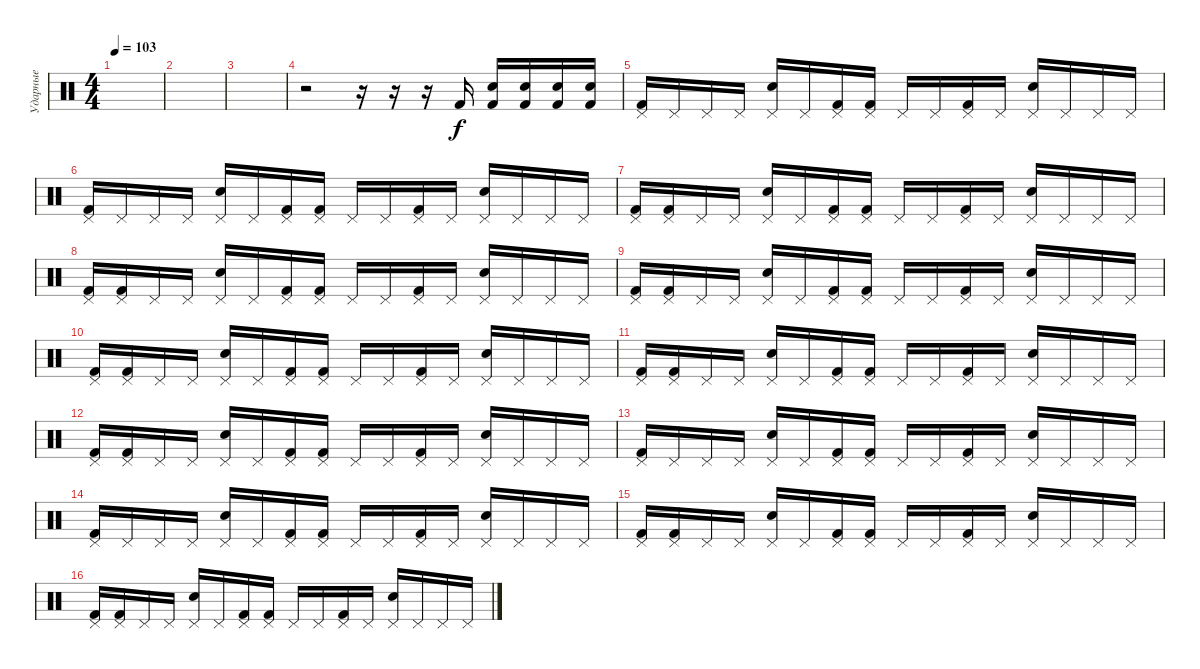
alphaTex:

\track ("Ударные" "Ударные") {instrument percussion}
\staff {score}
\articulation defaults
\ts (4 4)
\tempo 103
\clef neutral
\ks c
|
|
|
r.2 r.16 r.16 r.16 "Kick (hit) 2".16 ("Snare (hit) 2" "Kick (hit) 2").16 ("Snare (hit) 2" "Kick (hit) 2").16 ("Snare (hit) 2" "Kick (hit) 2").16 ("Snare (hit) 2" "Kick (hit) 2").16 |
("Pedal Hi-Hat (hit)" "Kick (hit) 2").16 "Pedal Hi-Hat (hit)".16 "Pedal Hi-Hat (hit)".16 "Pedal Hi-Hat (hit)".16 ("Pedal Hi-Hat (hit)" "Snare (hit) 2").16 "Pedal Hi-Hat (hit)".16 ("Pedal Hi-Hat (hit)" "Kick (hit) 2").16 ("Pedal Hi-Hat (hit)" "Kick (hit) 2").16 "Pedal Hi-Hat (hit)".16 "Pedal Hi-Hat (hit)".16 ("Pedal Hi-Hat (hit)" "Kick (hit) 2").16 "Pedal Hi-Hat (hit)".16 ("Pedal Hi-Hat (hit)" "Snare (hit) 2").16 "Pedal Hi-Hat (hit)".16 "Pedal Hi-Hat (hit)".16 "Pedal Hi-Hat (hit)".16 |
("Pedal Hi-Hat (hit)" "Kick (hit) 2").16 "Pedal Hi-Hat (hit)".16 "Pedal Hi-Hat (hit)".16 "Pedal Hi-Hat (hit)".16 ("Pedal Hi-Hat (hit)" "Snare (hit) 2").16 "Pedal Hi-Hat (hit)".16 ("Pedal Hi-Hat (hit)" "Kick (hit) 2").16 ("Pedal Hi-Hat (hit)" "Kick (hit) 2").16 "Pedal Hi-Hat (hit)".16 "Pedal Hi-Hat (hit)".16 ("Pedal Hi-Hat (hit)" "Kick (hit) 2").16 "Pedal Hi-Hat (hit)".16 ("Pedal Hi-Hat (hit)" "Snare (hit) 2").16 "Pedal Hi-Hat (hit)".16 "Pedal Hi-Hat (hit)".16 "Pedal Hi-Hat (hit)".16 |
("Pedal Hi-Hat (hit)" "Kick (hit) 2").16 ("Pedal Hi-Hat (hit)" "Kick (hit) 2").16 "Pedal Hi-Hat (hit)".16 "Pedal Hi-Hat (hit)".16 ("Pedal Hi-Hat (hit)" "Snare (hit) 2").16 "Pedal Hi-Hat (hit)".16 ("Pedal Hi-Hat (hit)" "Kick (hit) 2").16 ("Pedal Hi-Hat (hit)" "Kick (hit) 2").16 "Pedal Hi-Hat (hit)".16 "Pedal Hi-Hat (hit)".16 ("Pedal Hi-Hat (hit)" "Kick (hit) 2").16 "Pedal Hi-Hat (hit)".16 ("Pedal Hi-Hat (hit)" "Snare (hit) 2").16 "Pedal Hi-Hat (hit)".16 "Pedal Hi-Hat (hit)".16 "Pedal Hi-Hat (hit)".16 |
("Pedal Hi-Hat (hit)" "Kick (hit) 2").16 ("Pedal Hi-Hat (hit)" "Kick (hit) 2").16 "Pedal Hi-Hat (hit)".16 "Pedal Hi-Hat (hit)".16 ("Pedal Hi-Hat (hit)" "Snare (hit) 2").16 "Pedal Hi-Hat (hit)".16 ("Pedal Hi-Hat (hit)" "Kick (hit) 2").16 ("Pedal Hi-Hat (hit)" "Kick (hit) 2").16 "Pedal Hi-Hat (hit)".16 "Pedal Hi-Hat (hit)".16 ("Pedal Hi-Hat (hit)" "Kick (hit) 2").16 "Pedal Hi-Hat (hit)".16 ("Pedal Hi-Hat (hit)" "Snare (hit) 2").16 "Pedal Hi-Hat (hit)".16 "Pedal Hi-Hat (hit)".16 "Pedal Hi-Hat (hit)".16 |
("Pedal Hi-Hat (hit)" "Kick (hit) 2").16 ("Pedal Hi-Hat (hit)" "Kick (hit) 2").16 "Pedal Hi-Hat (hit)".16 "Pedal Hi-Hat (hit)".16 ("Pedal Hi-Hat (hit)" "Snare (hit) 2").16 "Pedal Hi-Hat (hit)".16 ("Pedal Hi-Hat (hit)" "Kick (hit) 2").16 ("Pedal Hi-Hat (hit)" "Kick (hit) 2").16 "Pedal Hi-Hat (hit)".16 "Pedal Hi-Hat (hit)".16 ("Pedal Hi-Hat (hit)" "Kick (hit) 2").16 "Pedal Hi-Hat (hit)".16 ("Pedal Hi-Hat (hit)" "Snare (hit) 2").16 "Pedal Hi-Hat (hit)".16 "Pedal Hi-Hat (hit)".16 "Pedal Hi-Hat (hit)".16 |
("Pedal Hi-Hat (hit)" "Kick (hit) 2").16 ("Pedal Hi-Hat (hit)" "Kick (hit) 2").16 "Pedal Hi-Hat (hit)".16 "Pedal Hi-Hat (hit)".16 ("Pedal Hi-Hat (hit)" "Snare (hit) 2").16 "Pedal Hi-Hat (hit)".16 ("Pedal Hi-Hat (hit)" "Kick (hit) 2").16 ("Pedal Hi-Hat (hit)" "Kick (hit) 2").16 "Pedal Hi-Hat (hit)".16 "Pedal Hi-Hat (hit)".16 ("Pedal Hi-Hat (hit)" "Kick (hit) 2").16 "Pedal Hi-Hat (hit)".16 ("Pedal Hi-Hat (hit)" "Snare (hit) 2").16 "Pedal Hi-Hat (hit)".16 "Pedal Hi-Hat (hit)".16 "Pedal Hi-Hat (hit)".16 |
("Pedal Hi-Hat (hit)" "Kick (hit) 2").16 ("Pedal Hi-Hat (hit)" "Kick (hit) 2").16 "Pedal Hi-Hat (hit)".16 "Pedal Hi-Hat (hit)".16 ("Pedal Hi-Hat (hit)" "Snare (hit) 2").16 "Pedal Hi-Hat (hit)".16 ("Pedal Hi-Hat (hit)" "Kick (hit) 2").16 ("Pedal Hi-Hat (hit)" "Kick (hit) 2").16 "Pedal Hi-Hat (hit)".16 "Pedal Hi-Hat (hit)".16 ("Pedal Hi-Hat (hit)" "Kick (hit) 2").16 "Pedal Hi-Hat (hit)".16 ("Pedal Hi-Hat (hit)" "Snare (hit) 2").16 "Pedal Hi-Hat (hit)".16 "Pedal Hi-Hat (hit)".16 "Pedal Hi-Hat (hit)".16 |
("Pedal Hi-Hat (hit)" "Kick (hit) 2").16 ("Pedal Hi-Hat (hit)" "Kick (hit) 2").16 "Pedal Hi-Hat (hit)".16 "Pedal Hi-Hat (hit)".16 ("Pedal Hi-Hat (hit)" "Snare (hit) 2").16 "Pedal Hi-Hat (hit)".16 ("Pedal Hi-Hat (hit)" "Kick (hit) 2").16 ("Pedal Hi-Hat (hit)" "Kick (hit) 2").16 "Pedal Hi-Hat (hit)".16 "Pedal Hi-Hat (hit)".16 ("Pedal Hi-Hat (hit)" "Kick (hit) 2").16 "Pedal Hi-Hat (hit)".16 ("Pedal Hi-Hat (hit)" "Snare (hit) 2").16 "Pedal Hi-Hat (hit)".16 "Pedal Hi-Hat (hit)".16 "Pedal Hi-Hat (hit)".16 |
("Pedal Hi-Hat (hit)" "Kick (hit) 2").16 "Pedal Hi-Hat (hit)".16 "Pedal Hi-Hat (hit)".16 "Pedal Hi-Hat (hit)".16 ("Pedal Hi-Hat (hit)" "Snare (hit) 2").16 "Pedal Hi-Hat (hit)".16 ("Pedal Hi-Hat (hit)" "Kick (hit) 2").16 ("Pedal Hi-Hat (hit)" "Kick (hit) 2").16 "Pedal Hi-Hat (hit)".16 "Pedal Hi-Hat (hit)".16 ("Pedal Hi-Hat (hit)" "Kick (hit) 2").16 "Pedal Hi-Hat (hit)".16 ("Pedal Hi-Hat (hit)" "Snare (hit) 2").16 "Pedal Hi-Hat (hit)".16 "Pedal Hi-Hat (hit)".16 "Pedal Hi-Hat (hit)".16 |
("Pedal Hi-Hat (hit)" "Kick (hit) 2").16 "Pedal Hi-Hat (hit)".16 "Pedal Hi-Hat (hit)".16 "Pedal Hi-Hat (hit)".16 ("Pedal Hi-Hat (hit)" "Snare (hit) 2").16 "Pedal Hi-Hat (hit)".16 ("Pedal Hi-Hat (hit)" "Kick (hit) 2").16 ("Pedal Hi-Hat (hit)" "Kick (hit) 2").16 "Pedal Hi-Hat (hit)".16 "Pedal Hi-Hat (hit)".16 ("Pedal Hi-Hat (hit)" "Kick (hit) 2").16 "Pedal Hi-Hat (hit)".16 ("Pedal Hi-Hat (hit)" "Snare (hit) 2").16 "Pedal Hi-Hat (hit)".16 "Pedal Hi-Hat (hit)".16 "Pedal Hi-Hat (hit)".16 |
("Pedal Hi-Hat (hit)" "Kick (hit) 2").16 ("Pedal Hi-Hat (hit)" "Kick (hit) 2").16 "Pedal Hi-Hat (hit)".16 "Pedal Hi-Hat (hit)".16 ("Pedal Hi-Hat (hit)" "Snare (hit) 2").16 "Pedal Hi-Hat (hit)".16 ("Pedal Hi-Hat (hit)" "Kick (hit) 2").16 ("Pedal Hi-Hat (hit)" "Kick (hit) 2").16 "Pedal Hi-Hat (hit)".16 "Pedal Hi-Hat (hit)".16 ("Pedal Hi-Hat (hit)" "Kick (hit) 2").16 "Pedal Hi-Hat (hit)".16 ("Pedal Hi-Hat (hit)" "Snare (hit) 2").16 "Pedal Hi-Hat (hit)".16 "Pedal Hi-Hat (hit)".16 "Pedal Hi-Hat (hit)".16 |
("Pedal Hi-Hat (hit)" "Kick (hit) 2").16 ("Pedal Hi-Hat (hit)" "Kick (hit) 2").16 "Pedal Hi-Hat (hit)".16 "Pedal Hi-Hat (hit)".16 ("Pedal Hi-Hat (hit)" "Snare (hit) 2").16 "Pedal Hi-Hat (hit)".16 ("Pedal Hi-Hat (hit)" "Kick (hit) 2").16 ("Pedal Hi-Hat (hit)" "Kick (hit) 2").16 "Pedal Hi-Hat (hit)".16 "Pedal Hi-Hat (hit)".16 ("Pedal Hi-Hat (hit)" "Kick (hit) 2").16 "Pedal Hi-Hat (hit)".16 ("Pedal Hi-Hat (hit)" "Snare (hit) 2").16 "Pedal Hi-Hat (hit)".16 "Pedal Hi-Hat (hit)".16 "Pedal Hi-Hat (hit)".16
